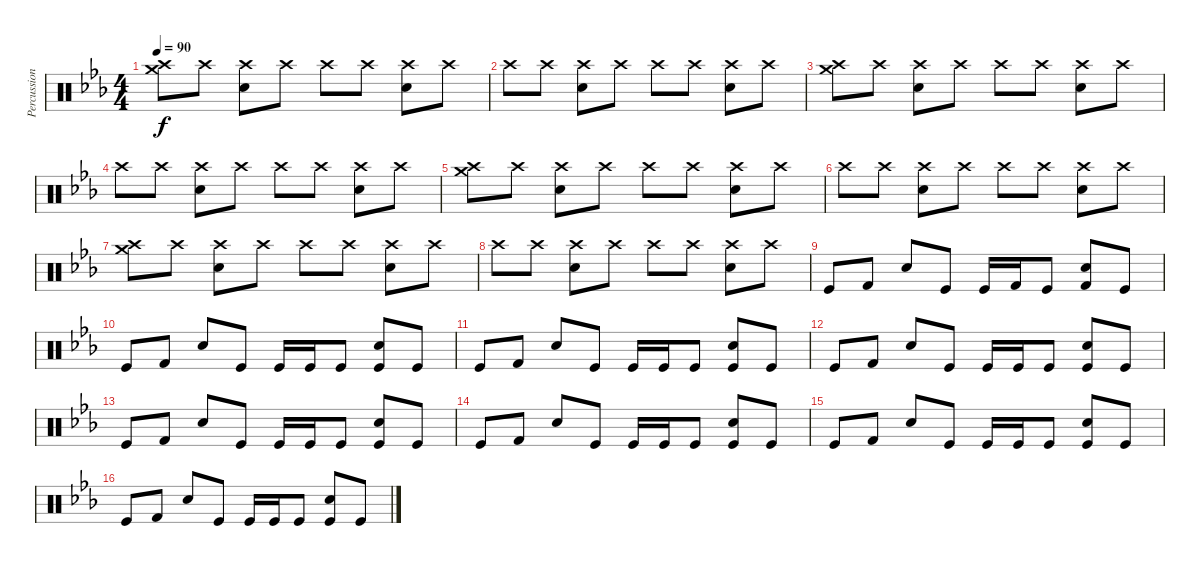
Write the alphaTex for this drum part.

\track ("Percussion" "Percussion") {instrument percussion}
\staff {score}
\articulation defaults
\ts (4 4)
\tempo 90
\clef neutral
\ks cminor
("Crash medium (hit)" "Crash high (hit)").8{dy f} "Crash high (hit)".8 ("Electric Snare (hit)" "Crash high (hit)").8 "Crash high (hit)".8 "Crash high (hit)".8 "Crash high (hit)".8 ("Electric Snare (hit)" "Crash high (hit)").8 "Crash high (hit)".8 |
"Crash high (hit)".8 "Crash high (hit)".8 ("Electric Snare (hit)" "Crash high (hit)").8 "Crash high (hit)".8 "Crash high (hit)".8 "Crash high (hit)".8 ("Electric Snare (hit)" "Crash high (hit)").8 "Crash high (hit)".8 |
("Crash medium (hit)" "Crash high (hit)").8 "Crash high (hit)".8 ("Electric Snare (hit)" "Crash high (hit)").8 "Crash high (hit)".8 "Crash high (hit)".8 "Crash high (hit)".8 ("Electric Snare (hit)" "Crash high (hit)").8 "Crash high (hit)".8 |
"Crash high (hit)".8 "Crash high (hit)".8 ("Electric Snare (hit)" "Crash high (hit)").8 "Crash high (hit)".8 "Crash high (hit)".8 "Crash high (hit)".8 ("Electric Snare (hit)" "Crash high (hit)").8 "Crash high (hit)".8 |
("Crash medium (hit)" "Crash high (hit)").8 "Crash high (hit)".8 ("Electric Snare (hit)" "Crash high (hit)").8 "Crash high (hit)".8 "Crash high (hit)".8 "Crash high (hit)".8 ("Electric Snare (hit)" "Crash high (hit)").8 "Crash high (hit)".8 |
"Crash high (hit)".8 "Crash high (hit)".8 ("Electric Snare (hit)" "Crash high (hit)").8 "Crash high (hit)".8 "Crash high (hit)".8 "Crash high (hit)".8 ("Electric Snare (hit)" "Crash high (hit)").8 "Crash high (hit)".8 |
("Crash medium (hit)" "Crash high (hit)").8 "Crash high (hit)".8 ("Electric Snare (hit)" "Crash high (hit)").8 "Crash high (hit)".8 "Crash high (hit)".8 "Crash high (hit)".8 ("Electric Snare (hit)" "Crash high (hit)").8 "Crash high (hit)".8 |
"Crash high (hit)".8 "Crash high (hit)".8 ("Electric Snare (hit)" "Crash high (hit)").8 "Crash high (hit)".8 "Crash high (hit)".8 "Crash high (hit)".8 ("Electric Snare (hit)" "Crash high (hit)").8 "Crash high (hit)".8 |
"Kick (hit)".8 "Kick (hit) 2".8 "Electric Snare (hit)".8 "Kick (hit)".8 "Kick (hit)".16 "Kick (hit) 2".16 "Kick (hit)".8 ("Electric Snare (hit)" "Kick (hit) 2").8 "Kick (hit)".8 |
"Kick (hit)".8 "Kick (hit) 2".8 "Electric Snare (hit)".8 "Kick (hit)".8 "Kick (hit)".16 "Kick (hit)".16 "Kick (hit)".8 ("Electric Snare (hit)" "Kick (hit)").8 "Kick (hit)".8 |
"Kick (hit)".8 "Kick (hit) 2".8 "Electric Snare (hit)".8 "Kick (hit)".8 "Kick (hit)".16 "Kick (hit)".16 "Kick (hit)".8 ("Electric Snare (hit)" "Kick (hit)").8 "Kick (hit)".8 |
"Kick (hit)".8 "Kick (hit) 2".8 "Electric Snare (hit)".8 "Kick (hit)".8 "Kick (hit)".16 "Kick (hit)".16 "Kick (hit)".8 ("Electric Snare (hit)" "Kick (hit)").8 "Kick (hit)".8 |
"Kick (hit)".8 "Kick (hit) 2".8 "Electric Snare (hit)".8 "Kick (hit)".8 "Kick (hit)".16 "Kick (hit)".16 "Kick (hit)".8 ("Electric Snare (hit)" "Kick (hit)").8 "Kick (hit)".8 |
"Kick (hit)".8 "Kick (hit) 2".8 "Electric Snare (hit)".8 "Kick (hit)".8 "Kick (hit)".16 "Kick (hit)".16 "Kick (hit)".8 ("Electric Snare (hit)" "Kick (hit)").8 "Kick (hit)".8 |
"Kick (hit)".8 "Kick (hit) 2".8 "Electric Snare (hit)".8 "Kick (hit)".8 "Kick (hit)".16 "Kick (hit)".16 "Kick (hit)".8 ("Electric Snare (hit)" "Kick (hit)").8 "Kick (hit)".8 |
"Kick (hit)".8 "Kick (hit) 2".8 "Electric Snare (hit)".8 "Kick (hit)".8 "Kick (hit)".16 "Kick (hit)".16 "Kick (hit)".8 ("Electric Snare (hit)" "Kick (hit)").8 "Kick (hit)".8
